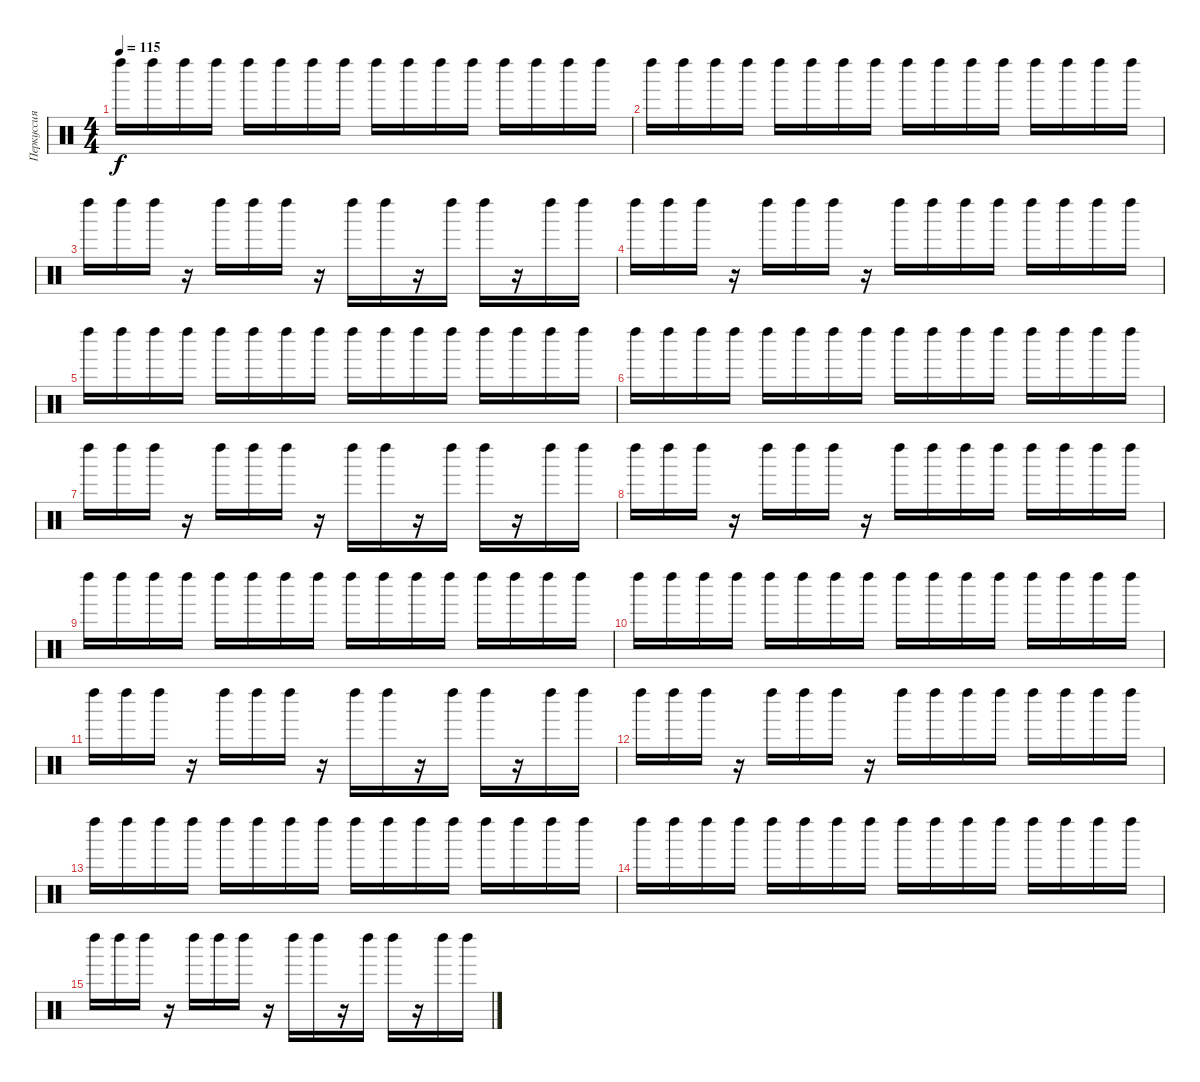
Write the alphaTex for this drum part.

\track ("Перкуссия" "Перкуссия") {instrument percussion}
\staff {score}
\articulation defaults
\ts (4 4)
\tempo 115
\clef neutral
\ks c "Left Maraca (hit)".16{dy f} "Left Maraca (hit)".16 "Left Maraca (hit)".16 "Left Maraca (hit)".16 "Left Maraca (hit)".16 "Left Maraca (hit)".16 "Left Maraca (hit)".16 "Left Maraca (hit)".16 "Left Maraca (hit)".16 "Left Maraca (hit)".16 "Left Maraca (hit)".16 "Left Maraca (hit)".16 "Left Maraca (hit)".16 "Left Maraca (hit)".16 "Left Maraca (hit)".16 "Left Maraca (hit)".16
|
"Left Maraca (hit)".16 "Left Maraca (hit)".16 "Left Maraca (hit)".16 "Left Maraca (hit)".16 "Left Maraca (hit)".16 "Left Maraca (hit)".16 "Left Maraca (hit)".16 "Left Maraca (hit)".16 "Left Maraca (hit)".16 "Left Maraca (hit)".16 "Left Maraca (hit)".16 "Left Maraca (hit)".16 "Left Maraca (hit)".16 "Left Maraca (hit)".16 "Left Maraca (hit)".16 "Left Maraca (hit)".16 |
"Left Maraca (hit)".16 "Left Maraca (hit)".16 "Left Maraca (hit)".16 r.16 "Left Maraca (hit)".16 "Left Maraca (hit)".16 "Left Maraca (hit)".16 r.16 "Left Maraca (hit)".16 "Left Maraca (hit)".16 r.16 "Left Maraca (hit)".16 "Left Maraca (hit)".16 r.16 "Left Maraca (hit)".16 "Left Maraca (hit)".16 |
"Left Maraca (hit)".16 "Left Maraca (hit)".16 "Left Maraca (hit)".16 r.16 "Left Maraca (hit)".16 "Left Maraca (hit)".16 "Left Maraca (hit)".16 r.16 "Left Maraca (hit)".16 "Left Maraca (hit)".16 "Left Maraca (hit)".16 "Left Maraca (hit)".16 "Left Maraca (hit)".16 "Left Maraca (hit)".16 "Left Maraca (hit)".16 "Left Maraca (hit)".16 |
"Left Maraca (hit)".16 "Left Maraca (hit)".16 "Left Maraca (hit)".16 "Left Maraca (hit)".16 "Left Maraca (hit)".16 "Left Maraca (hit)".16 "Left Maraca (hit)".16 "Left Maraca (hit)".16 "Left Maraca (hit)".16 "Left Maraca (hit)".16 "Left Maraca (hit)".16 "Left Maraca (hit)".16 "Left Maraca (hit)".16 "Left Maraca (hit)".16 "Left Maraca (hit)".16 "Left Maraca (hit)".16 |
"Left Maraca (hit)".16 "Left Maraca (hit)".16 "Left Maraca (hit)".16 "Left Maraca (hit)".16 "Left Maraca (hit)".16 "Left Maraca (hit)".16 "Left Maraca (hit)".16 "Left Maraca (hit)".16 "Left Maraca (hit)".16 "Left Maraca (hit)".16 "Left Maraca (hit)".16 "Left Maraca (hit)".16 "Left Maraca (hit)".16 "Left Maraca (hit)".16 "Left Maraca (hit)".16 "Left Maraca (hit)".16 |
"Left Maraca (hit)".16 "Left Maraca (hit)".16 "Left Maraca (hit)".16 r.16 "Left Maraca (hit)".16 "Left Maraca (hit)".16 "Left Maraca (hit)".16 r.16 "Left Maraca (hit)".16 "Left Maraca (hit)".16 r.16 "Left Maraca (hit)".16 "Left Maraca (hit)".16 r.16 "Left Maraca (hit)".16 "Left Maraca (hit)".16 |
"Left Maraca (hit)".16 "Left Maraca (hit)".16 "Left Maraca (hit)".16 r.16 "Left Maraca (hit)".16 "Left Maraca (hit)".16 "Left Maraca (hit)".16 r.16 "Left Maraca (hit)".16 "Left Maraca (hit)".16 "Left Maraca (hit)".16 "Left Maraca (hit)".16 "Left Maraca (hit)".16 "Left Maraca (hit)".16 "Left Maraca (hit)".16 "Left Maraca (hit)".16 |
"Left Maraca (hit)".16 "Left Maraca (hit)".16 "Left Maraca (hit)".16 "Left Maraca (hit)".16 "Left Maraca (hit)".16 "Left Maraca (hit)".16 "Left Maraca (hit)".16 "Left Maraca (hit)".16 "Left Maraca (hit)".16 "Left Maraca (hit)".16 "Left Maraca (hit)".16 "Left Maraca (hit)".16 "Left Maraca (hit)".16 "Left Maraca (hit)".16 "Left Maraca (hit)".16 "Left Maraca (hit)".16 |
"Left Maraca (hit)".16 "Left Maraca (hit)".16 "Left Maraca (hit)".16 "Left Maraca (hit)".16 "Left Maraca (hit)".16 "Left Maraca (hit)".16 "Left Maraca (hit)".16 "Left Maraca (hit)".16 "Left Maraca (hit)".16 "Left Maraca (hit)".16 "Left Maraca (hit)".16 "Left Maraca (hit)".16 "Left Maraca (hit)".16 "Left Maraca (hit)".16 "Left Maraca (hit)".16 "Left Maraca (hit)".16 |
"Left Maraca (hit)".16 "Left Maraca (hit)".16 "Left Maraca (hit)".16 r.16 "Left Maraca (hit)".16 "Left Maraca (hit)".16 "Left Maraca (hit)".16 r.16 "Left Maraca (hit)".16 "Left Maraca (hit)".16 r.16 "Left Maraca (hit)".16 "Left Maraca (hit)".16 r.16 "Left Maraca (hit)".16 "Left Maraca (hit)".16 |
"Left Maraca (hit)".16 "Left Maraca (hit)".16 "Left Maraca (hit)".16 r.16 "Left Maraca (hit)".16 "Left Maraca (hit)".16 "Left Maraca (hit)".16 r.16 "Left Maraca (hit)".16 "Left Maraca (hit)".16 "Left Maraca (hit)".16 "Left Maraca (hit)".16 "Left Maraca (hit)".16 "Left Maraca (hit)".16 "Left Maraca (hit)".16 "Left Maraca (hit)".16 |
"Left Maraca (hit)".16 "Left Maraca (hit)".16 "Left Maraca (hit)".16 "Left Maraca (hit)".16 "Left Maraca (hit)".16 "Left Maraca (hit)".16 "Left Maraca (hit)".16 "Left Maraca (hit)".16 "Left Maraca (hit)".16 "Left Maraca (hit)".16 "Left Maraca (hit)".16 "Left Maraca (hit)".16 "Left Maraca (hit)".16 "Left Maraca (hit)".16 "Left Maraca (hit)".16 "Left Maraca (hit)".16 |
"Left Maraca (hit)".16 "Left Maraca (hit)".16 "Left Maraca (hit)".16 "Left Maraca (hit)".16 "Left Maraca (hit)".16 "Left Maraca (hit)".16 "Left Maraca (hit)".16 "Left Maraca (hit)".16 "Left Maraca (hit)".16 "Left Maraca (hit)".16 "Left Maraca (hit)".16 "Left Maraca (hit)".16 "Left Maraca (hit)".16 "Left Maraca (hit)".16 "Left Maraca (hit)".16 "Left Maraca (hit)".16 |
"Left Maraca (hit)".16 "Left Maraca (hit)".16 "Left Maraca (hit)".16 r.16 "Left Maraca (hit)".16 "Left Maraca (hit)".16 "Left Maraca (hit)".16 r.16 "Left Maraca (hit)".16 "Left Maraca (hit)".16 r.16 "Left Maraca (hit)".16 "Left Maraca (hit)".16 r.16 "Left Maraca (hit)".16 "Left Maraca (hit)".16
